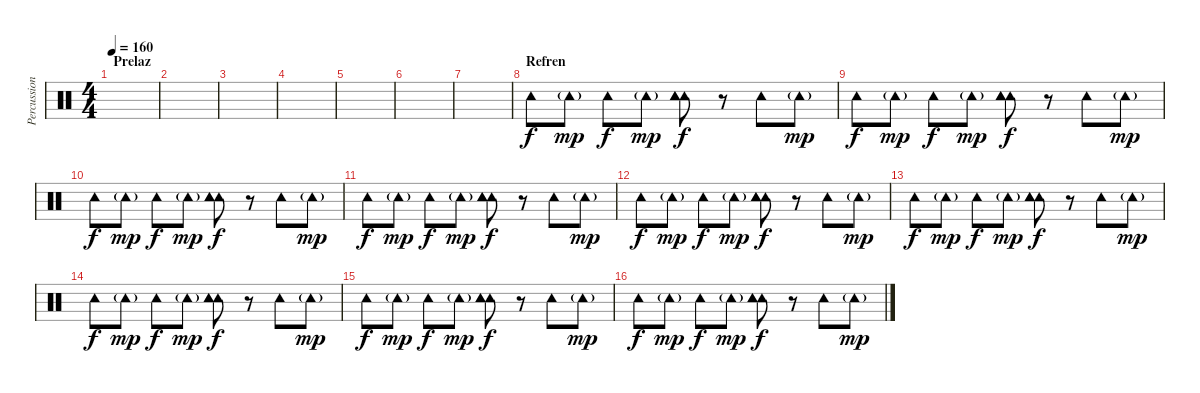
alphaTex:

\track ("Percussion" "Percussion") {instrument percussion}
\staff {score}
\articulation defaults
\ts (4 4)
\section ("" "Prelaz")
\tempo 160
\clef neutral
\ks c
|
|
|
|
|
|
|
\section ("" "Refren")
"Tambourine (hit)".8 "Tambourine (hit)"{g}.8{dy mp} "Tambourine (hit)".8{dy f} "Tambourine (hit)"{g}.8{dy mp} ("Tambourine (hit)" "Tambourine (hit)" "Tambourine (hit)").8{dy f} r.8 "Tambourine (hit)".8 "Tambourine (hit)"{g}.8{dy mp} |
"Tambourine (hit)".8{dy f} "Tambourine (hit)"{g}.8{dy mp} "Tambourine (hit)".8{dy f} "Tambourine (hit)"{g}.8{dy mp} ("Tambourine (hit)" "Tambourine (hit)" "Tambourine (hit)").8{dy f} r.8 "Tambourine (hit)".8 "Tambourine (hit)"{g}.8{dy mp} |
"Tambourine (hit)".8{dy f} "Tambourine (hit)"{g}.8{dy mp} "Tambourine (hit)".8{dy f} "Tambourine (hit)"{g}.8{dy mp} ("Tambourine (hit)" "Tambourine (hit)" "Tambourine (hit)").8{dy f} r.8 "Tambourine (hit)".8 "Tambourine (hit)"{g}.8{dy mp} |
"Tambourine (hit)".8{dy f} "Tambourine (hit)"{g}.8{dy mp} "Tambourine (hit)".8{dy f} "Tambourine (hit)"{g}.8{dy mp} ("Tambourine (hit)" "Tambourine (hit)" "Tambourine (hit)").8{dy f} r.8 "Tambourine (hit)".8 "Tambourine (hit)"{g}.8{dy mp} |
"Tambourine (hit)".8{dy f} "Tambourine (hit)"{g}.8{dy mp} "Tambourine (hit)".8{dy f} "Tambourine (hit)"{g}.8{dy mp} ("Tambourine (hit)" "Tambourine (hit)" "Tambourine (hit)").8{dy f} r.8 "Tambourine (hit)".8 "Tambourine (hit)"{g}.8{dy mp} |
"Tambourine (hit)".8{dy f} "Tambourine (hit)"{g}.8{dy mp} "Tambourine (hit)".8{dy f} "Tambourine (hit)"{g}.8{dy mp} ("Tambourine (hit)" "Tambourine (hit)" "Tambourine (hit)").8{dy f} r.8 "Tambourine (hit)".8 "Tambourine (hit)"{g}.8{dy mp} |
"Tambourine (hit)".8{dy f} "Tambourine (hit)"{g}.8{dy mp} "Tambourine (hit)".8{dy f} "Tambourine (hit)"{g}.8{dy mp} ("Tambourine (hit)" "Tambourine (hit)" "Tambourine (hit)").8{dy f} r.8 "Tambourine (hit)".8 "Tambourine (hit)"{g}.8{dy mp} |
"Tambourine (hit)".8{dy f} "Tambourine (hit)"{g}.8{dy mp} "Tambourine (hit)".8{dy f} "Tambourine (hit)"{g}.8{dy mp} ("Tambourine (hit)" "Tambourine (hit)" "Tambourine (hit)").8{dy f} r.8 "Tambourine (hit)".8 "Tambourine (hit)"{g}.8{dy mp} |
"Tambourine (hit)".8{dy f} "Tambourine (hit)"{g}.8{dy mp} "Tambourine (hit)".8{dy f} "Tambourine (hit)"{g}.8{dy mp} ("Tambourine (hit)" "Tambourine (hit)" "Tambourine (hit)").8{dy f} r.8 "Tambourine (hit)".8 "Tambourine (hit)"{g}.8{dy mp}
